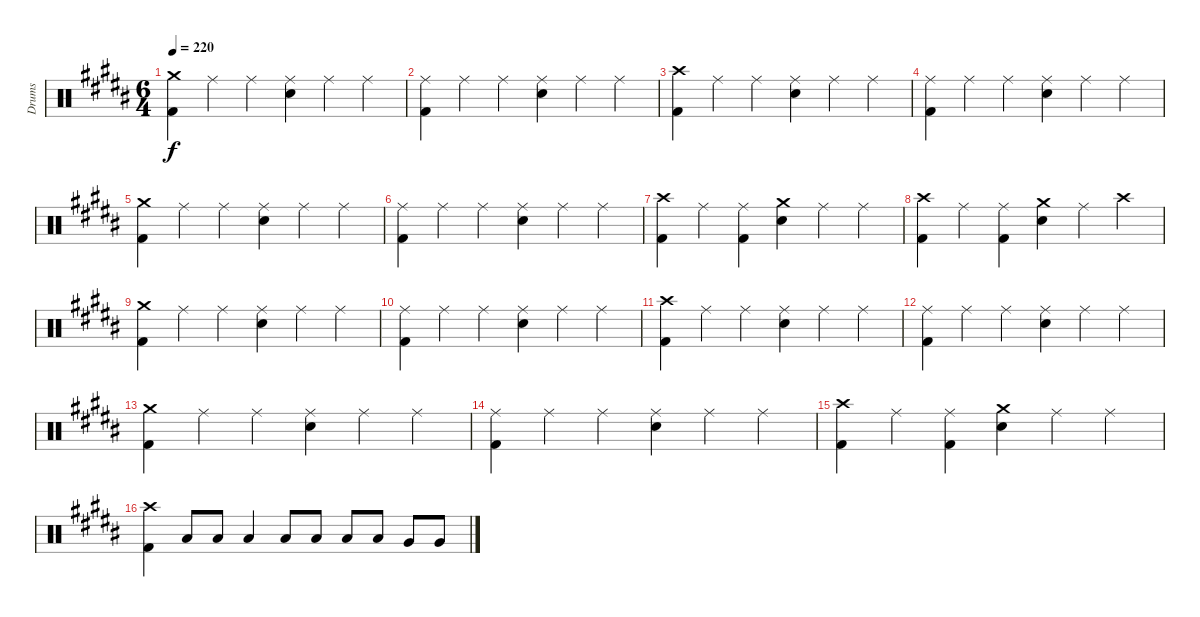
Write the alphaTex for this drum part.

\track ("Drums" "Drums") {instrument percussion}
\staff {score}
\articulation defaults
\ts (6 4)
\tempo 220
\clef neutral
\ks g#minor
("Crash medium (hit)" "Kick (hit) 2").4{dy f} "Ride (middle)".4 "Ride (middle)".4 ("Ride (middle)" "Electric Snare (hit)").4 "Ride (middle)".4 "Ride (middle)".4 |
("Ride (middle)" "Kick (hit) 2").4 "Ride (middle)".4 "Ride (middle)".4 ("Ride (middle)" "Electric Snare (hit)").4 "Ride (middle)".4 "Ride (middle)".4 |
("Crash high (hit)" "Kick (hit) 2").4 "Ride (middle)".4 "Ride (middle)".4 ("Ride (middle)" "Electric Snare (hit)").4 "Ride (middle)".4 "Ride (middle)".4 |
("Ride (middle)" "Kick (hit) 2").4 "Ride (middle)".4 "Ride (middle)".4 ("Ride (middle)" "Electric Snare (hit)").4 "Ride (middle)".4 "Ride (middle)".4 |
("Crash medium (hit)" "Kick (hit) 2").4 "Ride (middle)".4 "Ride (middle)".4 ("Ride (middle)" "Electric Snare (hit)").4 "Ride (middle)".4 "Ride (middle)".4 |
("Ride (middle)" "Kick (hit) 2").4 "Ride (middle)".4 "Ride (middle)".4 ("Ride (middle)" "Electric Snare (hit)").4 "Ride (middle)".4 "Ride (middle)".4 |
("Crash high (hit)" "Kick (hit) 2").4 "Ride (middle)".4 ("Ride (middle)" "Kick (hit) 2").4 ("Crash medium (hit)" "Electric Snare (hit)").4 "Ride (middle)".4 "Ride (middle)".4 |
("Crash high (hit)" "Kick (hit) 2").4 "Ride (middle)".4 ("Ride (middle)" "Kick (hit) 2").4 ("Crash medium (hit)" "Electric Snare (hit)").4 "Ride (middle)".4 "Crash high (hit)".4 |
("Crash medium (hit)" "Kick (hit) 2").4 "Ride (middle)".4 "Ride (middle)".4 ("Ride (middle)" "Electric Snare (hit)").4 "Ride (middle)".4 "Ride (middle)".4 |
("Ride (middle)" "Kick (hit) 2").4 "Ride (middle)".4 "Ride (middle)".4 ("Ride (middle)" "Electric Snare (hit)").4 "Ride (middle)".4 "Ride (middle)".4 |
("Crash high (hit)" "Kick (hit) 2").4 "Ride (middle)".4 "Ride (middle)".4 ("Ride (middle)" "Electric Snare (hit)").4 "Ride (middle)".4 "Ride (middle)".4 |
("Ride (middle)" "Kick (hit) 2").4 "Ride (middle)".4 "Ride (middle)".4 ("Ride (middle)" "Electric Snare (hit)").4 "Ride (middle)".4 "Ride (middle)".4 |
("Crash medium (hit)" "Kick (hit) 2").4 "Ride (middle)".4 "Ride (middle)".4 ("Ride (middle)" "Electric Snare (hit)").4 "Ride (middle)".4 "Ride (middle)".4 |
("Ride (middle)" "Kick (hit) 2").4 "Ride (middle)".4 "Ride (middle)".4 ("Ride (middle)" "Electric Snare (hit)").4 "Ride (middle)".4 "Ride (middle)".4 |
("Crash high (hit)" "Kick (hit) 2").4 "Ride (middle)".4 ("Ride (middle)" "Kick (hit) 2").4 ("Crash medium (hit)" "Electric Snare (hit)").4 "Ride (middle)".4 "Ride (middle)".4 |
("Crash high (hit)" "Kick (hit) 2").4 "Low Floor Tom (hit)".8 "Low Floor Tom (hit)".8 "Low Floor Tom (hit)".4 "Low Tom (hit)".8 "Low Tom (hit)".8 "Low Tom (hit)".8 "Low Tom (hit)".8 "Very Low Tom (hit)".8 "Very Low Tom (hit)".8
